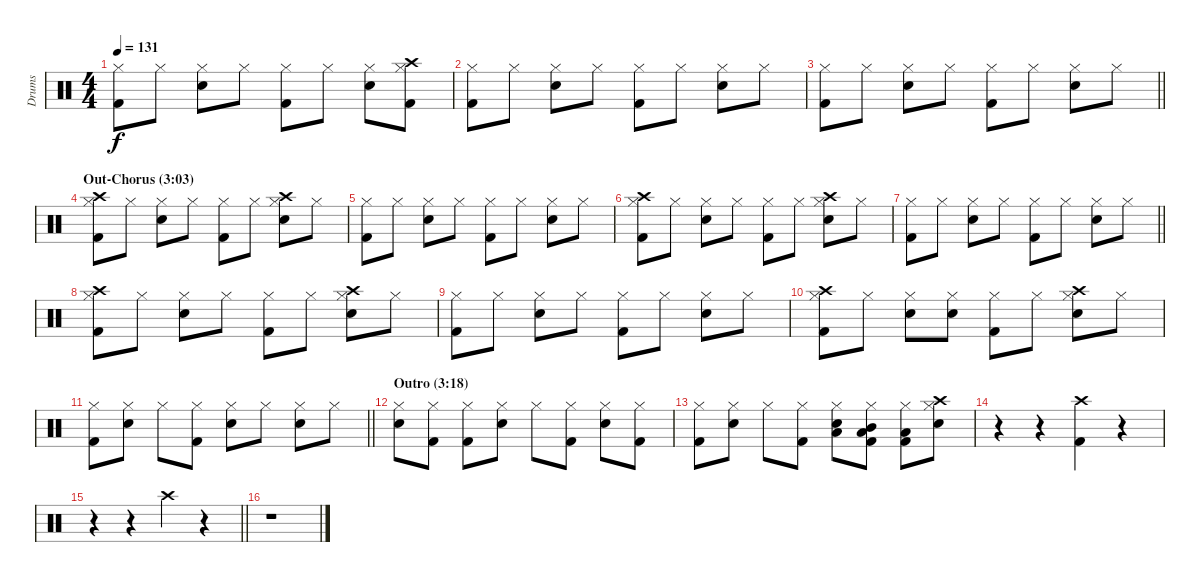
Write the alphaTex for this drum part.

\track ("Drums" "Drums") {instrument percussion}
\staff {score}
\articulation defaults
\ts (4 4)
\tempo 131
\clef neutral
\ks c
("Kick (hit) 2" "Hi-Hat (closed)").8{dy f} "Hi-Hat (closed)".8 ("Hi-Hat (closed)" "Snare (hit) 2").8 "Hi-Hat (closed)".8 ("Hi-Hat (closed)" "Kick (hit) 2").8 "Hi-Hat (closed)".8 ("Hi-Hat (closed)" "Snare (hit) 2").8 ("Hi-Hat (closed)" "Kick (hit) 2" "Crash high (hit)").8 |
("Kick (hit) 2" "Hi-Hat (closed)").8 "Hi-Hat (closed)".8 ("Hi-Hat (closed)" "Snare (hit) 2").8 "Hi-Hat (closed)".8 ("Hi-Hat (closed)" "Kick (hit) 2").8 "Hi-Hat (closed)".8 ("Hi-Hat (closed)" "Snare (hit) 2").8 "Hi-Hat (closed)".8 |
\barLineRight lightlight
("Kick (hit) 2" "Hi-Hat (closed)").8 "Hi-Hat (closed)".8 ("Hi-Hat (closed)" "Snare (hit) 2").8 "Hi-Hat (closed)".8 ("Hi-Hat (closed)" "Kick (hit) 2").8 "Hi-Hat (closed)".8 ("Hi-Hat (closed)" "Snare (hit) 2").8 "Hi-Hat (closed)".8 |
\section ("" "Out-Chorus (3:03)")
("Kick (hit) 2" "Hi-Hat (closed)" "Crash high (hit)").8 "Hi-Hat (closed)".8 ("Hi-Hat (closed)" "Snare (hit) 2").8 "Hi-Hat (closed)".8 ("Hi-Hat (closed)" "Kick (hit) 2").8 "Hi-Hat (closed)".8 ("Hi-Hat (closed)" "Snare (hit) 2" "Crash high (hit)").8 "Hi-Hat (closed)".8 |
("Kick (hit) 2" "Hi-Hat (closed)").8 "Hi-Hat (closed)".8 ("Hi-Hat (closed)" "Snare (hit) 2").8 "Hi-Hat (closed)".8 ("Hi-Hat (closed)" "Kick (hit) 2").8 "Hi-Hat (closed)".8 ("Hi-Hat (closed)" "Snare (hit) 2").8 "Hi-Hat (closed)".8 |
("Kick (hit) 2" "Hi-Hat (closed)" "Crash high (hit)").8 "Hi-Hat (closed)".8 ("Hi-Hat (closed)" "Snare (hit) 2").8 "Hi-Hat (closed)".8 ("Hi-Hat (closed)" "Kick (hit) 2").8 "Hi-Hat (closed)".8 ("Hi-Hat (closed)" "Snare (hit) 2" "Crash high (hit)").8 "Hi-Hat (closed)".8 |
\barLineRight lightlight
("Kick (hit) 2" "Hi-Hat (closed)").8 "Hi-Hat (closed)".8 ("Hi-Hat (closed)" "Snare (hit) 2").8 "Hi-Hat (closed)".8 ("Hi-Hat (closed)" "Kick (hit) 2").8 "Hi-Hat (closed)".8 ("Hi-Hat (closed)" "Snare (hit) 2").8 "Hi-Hat (closed)".8 |
("Kick (hit) 2" "Hi-Hat (closed)" "Crash high (hit)").8 "Hi-Hat (closed)".8 ("Hi-Hat (closed)" "Snare (hit) 2").8 "Hi-Hat (closed)".8 ("Hi-Hat (closed)" "Kick (hit) 2").8 "Hi-Hat (closed)".8 ("Hi-Hat (closed)" "Snare (hit) 2" "Crash high (hit)").8 "Hi-Hat (closed)".8 |
("Kick (hit) 2" "Hi-Hat (closed)").8 "Hi-Hat (closed)".8 ("Hi-Hat (closed)" "Snare (hit) 2").8 "Hi-Hat (closed)".8 ("Hi-Hat (closed)" "Kick (hit) 2").8 "Hi-Hat (closed)".8 ("Hi-Hat (closed)" "Snare (hit) 2").8 "Hi-Hat (closed)".8 |
("Kick (hit) 2" "Hi-Hat (closed)" "Crash high (hit)").8 "Hi-Hat (closed)".8 ("Hi-Hat (closed)" "Snare (hit) 2").8 ("Hi-Hat (closed)" "Snare (hit) 2").8 ("Hi-Hat (closed)" "Kick (hit) 2").8 "Hi-Hat (closed)".8 ("Hi-Hat (closed)" "Snare (hit) 2" "Crash high (hit)").8 "Hi-Hat (closed)".8 |
\barLineRight lightlight
("Kick (hit) 2" "Hi-Hat (closed)").8 ("Hi-Hat (closed)" "Snare (hit) 2").8 "Hi-Hat (closed)".8 ("Hi-Hat (closed)" "Kick (hit) 2").8 ("Hi-Hat (closed)" "Snare (hit) 2").8 "Hi-Hat (closed)".8 ("Hi-Hat (closed)" "Snare (hit) 2").8 "Hi-Hat (closed)".8 |
\section ("" "Outro (3:18)")
("Snare (hit) 2" "Hi-Hat (closed)").8 ("Kick (hit) 2" "Hi-Hat (closed)").8 ("Kick (hit) 2" "Hi-Hat (closed)").8 ("Snare (hit) 2" "Hi-Hat (closed)").8 "Hi-Hat (closed)".8 ("Kick (hit) 2" "Hi-Hat (closed)").8 ("Snare (hit) 2" "Hi-Hat (closed)").8 ("Kick (hit) 2" "Hi-Hat (closed)").8 |
("Kick (hit) 2" "Hi-Hat (closed)").8 ("Snare (hit) 2" "Hi-Hat (closed)").8 "Hi-Hat (closed)".8 ("Kick (hit) 2" "Hi-Hat (closed)").8 ("Snare (hit) 2" "Hi-Hat (closed)" "Low Tom (hit)").8 ("Kick (hit) 2" "Hi-Hat (closed)" "Low Tom (hit)" "Mid Tom (hit)").8 ("Kick (hit) 2" "Hi-Hat (closed)" "Low Tom (hit)").8 ("Snare (hit) 2" "Hi-Hat (closed)" "Crash high (hit)").8 |
r.4 r.4 ("Kick (hit) 2" "Crash high (hit)").4 r.4 |
\barLineRight lightlight
r.4 r.4 "Crash high (hit)".4 r.4 |
r.1
